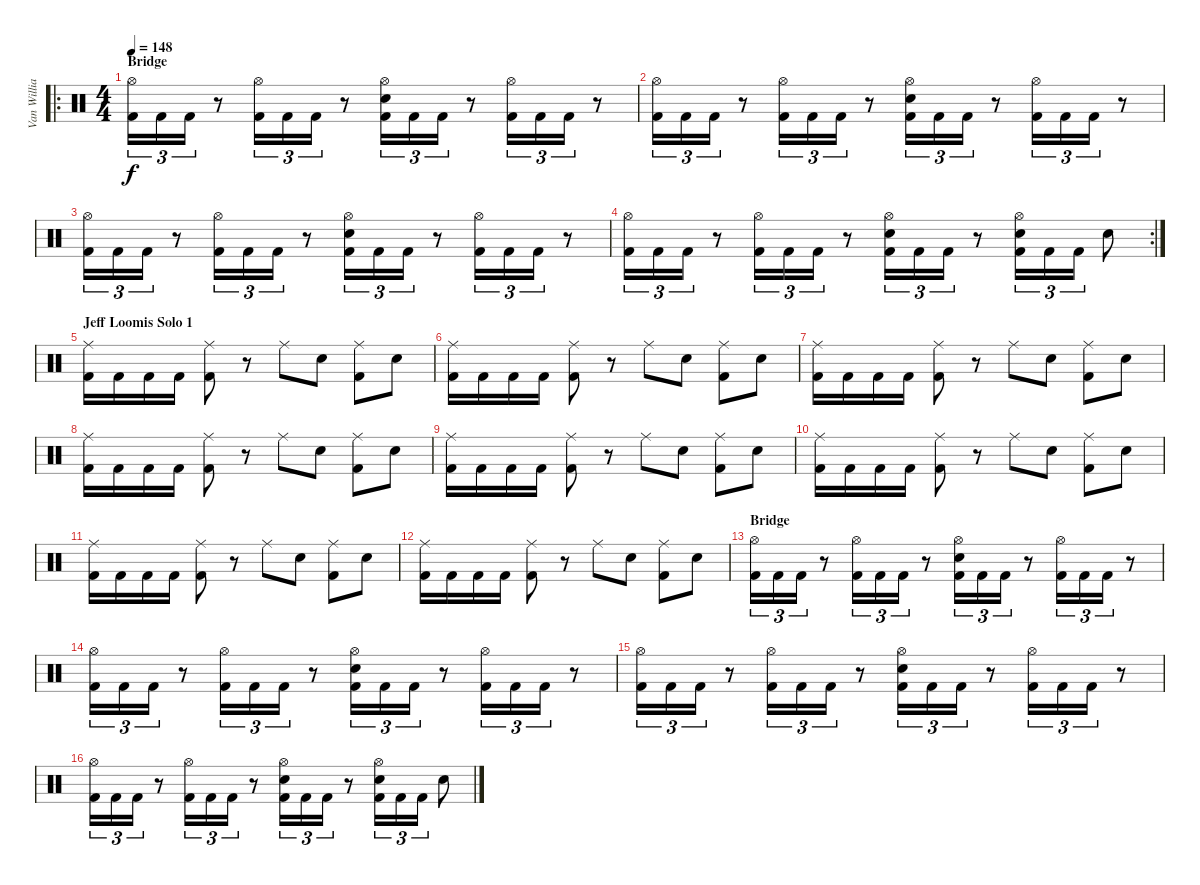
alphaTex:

\track ("Van Williams" "Van Willia") {instrument percussion}
\staff {score}
\articulation defaults
\ro
\ts (4 4)
\section ("" "Bridge")
\tempo 148
\clef neutral
\ks c
("Hi-Hat (open)" "Kick (hit) 2").16{tu (3 2) dy f} "Kick (hit) 2".16{tu (3 2)} "Kick (hit) 2".16{tu (3 2)} r.8 ("Hi-Hat (open)" "Kick (hit) 2").16{tu (3 2)} "Kick (hit) 2".16{tu (3 2)} "Kick (hit) 2".16{tu (3 2)} r.8 ("Hi-Hat (open)" "Electric Snare (hit)" "Kick (hit) 2").16{tu (3 2)} "Kick (hit) 2".16{tu (3 2)} "Kick (hit) 2".16{tu (3 2)} r.8 ("Hi-Hat (open)" "Kick (hit) 2").16{tu (3 2)} "Kick (hit) 2".16{tu (3 2)} "Kick (hit) 2".16{tu (3 2)} r.8 |
("Hi-Hat (open)" "Kick (hit) 2").16{tu (3 2)} "Kick (hit) 2".16{tu (3 2)} "Kick (hit) 2".16{tu (3 2)} r.8 ("Hi-Hat (open)" "Kick (hit) 2").16{tu (3 2)} "Kick (hit) 2".16{tu (3 2)} "Kick (hit) 2".16{tu (3 2)} r.8 ("Hi-Hat (open)" "Electric Snare (hit)" "Kick (hit) 2").16{tu (3 2)} "Kick (hit) 2".16{tu (3 2)} "Kick (hit) 2".16{tu (3 2)} r.8 ("Hi-Hat (open)" "Kick (hit) 2").16{tu (3 2)} "Kick (hit) 2".16{tu (3 2)} "Kick (hit) 2".16{tu (3 2)} r.8 |
("Hi-Hat (open)" "Kick (hit) 2").16{tu (3 2)} "Kick (hit) 2".16{tu (3 2)} "Kick (hit) 2".16{tu (3 2)} r.8 ("Hi-Hat (open)" "Kick (hit) 2").16{tu (3 2)} "Kick (hit) 2".16{tu (3 2)} "Kick (hit) 2".16{tu (3 2)} r.8 ("Hi-Hat (open)" "Electric Snare (hit)" "Kick (hit) 2").16{tu (3 2)} "Kick (hit) 2".16{tu (3 2)} "Kick (hit) 2".16{tu (3 2)} r.8 ("Hi-Hat (open)" "Kick (hit) 2").16{tu (3 2)} "Kick (hit) 2".16{tu (3 2)} "Kick (hit) 2".16{tu (3 2)} r.8 |
\rc 2
("Hi-Hat (open)" "Kick (hit) 2").16{tu (3 2)} "Kick (hit) 2".16{tu (3 2)} "Kick (hit) 2".16{tu (3 2)} r.8 ("Hi-Hat (open)" "Kick (hit) 2").16{tu (3 2)} "Kick (hit) 2".16{tu (3 2)} "Kick (hit) 2".16{tu (3 2)} r.8 ("Hi-Hat (open)" "Electric Snare (hit)" "Kick (hit) 2").16{tu (3 2)} "Kick (hit) 2".16{tu (3 2)} "Kick (hit) 2".16{tu (3 2)} r.8 ("Hi-Hat (open)" "Electric Snare (hit)" "Kick (hit) 2").16{tu (3 2)} "Kick (hit) 2".16{tu (3 2)} "Kick (hit) 2".16{tu (3 2)} "Electric Snare (hit)".8 |
\section ("" "Jeff Loomis Solo 1")
("Ride (middle)" "Kick (hit) 2").16 "Kick (hit) 2".16 "Kick (hit) 2".16 "Kick (hit) 2".16 ("Ride (middle)" "Kick (hit) 2").8 r.8 "Ride (middle)".8 "Electric Snare (hit)".8 ("Ride (middle)" "Kick (hit) 2").8 "Electric Snare (hit)".8 |
("Ride (middle)" "Kick (hit) 2").16 "Kick (hit) 2".16 "Kick (hit) 2".16 "Kick (hit) 2".16 ("Ride (middle)" "Kick (hit) 2").8 r.8 "Ride (middle)".8 "Electric Snare (hit)".8 ("Ride (middle)" "Kick (hit) 2").8 "Electric Snare (hit)".8 |
("Ride (middle)" "Kick (hit) 2").16 "Kick (hit) 2".16 "Kick (hit) 2".16 "Kick (hit) 2".16 ("Ride (middle)" "Kick (hit) 2").8 r.8 "Ride (middle)".8 "Electric Snare (hit)".8 ("Ride (middle)" "Kick (hit) 2").8 "Electric Snare (hit)".8 |
("Ride (middle)" "Kick (hit) 2").16 "Kick (hit) 2".16 "Kick (hit) 2".16 "Kick (hit) 2".16 ("Ride (middle)" "Kick (hit) 2").8 r.8 "Ride (middle)".8 "Electric Snare (hit)".8 ("Ride (middle)" "Kick (hit) 2").8 "Electric Snare (hit)".8 |
("Ride (middle)" "Kick (hit) 2").16 "Kick (hit) 2".16 "Kick (hit) 2".16 "Kick (hit) 2".16 ("Ride (middle)" "Kick (hit) 2").8 r.8 "Ride (middle)".8 "Electric Snare (hit)".8 ("Ride (middle)" "Kick (hit) 2").8 "Electric Snare (hit)".8 |
("Ride (middle)" "Kick (hit) 2").16 "Kick (hit) 2".16 "Kick (hit) 2".16 "Kick (hit) 2".16 ("Ride (middle)" "Kick (hit) 2").8 r.8 "Ride (middle)".8 "Electric Snare (hit)".8 ("Ride (middle)" "Kick (hit) 2").8 "Electric Snare (hit)".8 |
("Ride (middle)" "Kick (hit) 2").16 "Kick (hit) 2".16 "Kick (hit) 2".16 "Kick (hit) 2".16 ("Ride (middle)" "Kick (hit) 2").8 r.8 "Ride (middle)".8 "Electric Snare (hit)".8 ("Ride (middle)" "Kick (hit) 2").8 "Electric Snare (hit)".8 |
("Ride (middle)" "Kick (hit) 2").16 "Kick (hit) 2".16 "Kick (hit) 2".16 "Kick (hit) 2".16 ("Ride (middle)" "Kick (hit) 2").8 r.8 "Ride (middle)".8 "Electric Snare (hit)".8 ("Ride (middle)" "Kick (hit) 2").8 "Electric Snare (hit)".8 |
\section ("" "Bridge")
("Hi-Hat (open)" "Kick (hit) 2").16{tu (3 2)} "Kick (hit) 2".16{tu (3 2)} "Kick (hit) 2".16{tu (3 2)} r.8 ("Hi-Hat (open)" "Kick (hit) 2").16{tu (3 2)} "Kick (hit) 2".16{tu (3 2)} "Kick (hit) 2".16{tu (3 2)} r.8 ("Hi-Hat (open)" "Electric Snare (hit)" "Kick (hit) 2").16{tu (3 2)} "Kick (hit) 2".16{tu (3 2)} "Kick (hit) 2".16{tu (3 2)} r.8 ("Hi-Hat (open)" "Kick (hit) 2").16{tu (3 2)} "Kick (hit) 2".16{tu (3 2)} "Kick (hit) 2".16{tu (3 2)} r.8 |
("Hi-Hat (open)" "Kick (hit) 2").16{tu (3 2)} "Kick (hit) 2".16{tu (3 2)} "Kick (hit) 2".16{tu (3 2)} r.8 ("Hi-Hat (open)" "Kick (hit) 2").16{tu (3 2)} "Kick (hit) 2".16{tu (3 2)} "Kick (hit) 2".16{tu (3 2)} r.8 ("Hi-Hat (open)" "Electric Snare (hit)" "Kick (hit) 2").16{tu (3 2)} "Kick (hit) 2".16{tu (3 2)} "Kick (hit) 2".16{tu (3 2)} r.8 ("Hi-Hat (open)" "Kick (hit) 2").16{tu (3 2)} "Kick (hit) 2".16{tu (3 2)} "Kick (hit) 2".16{tu (3 2)} r.8 |
("Hi-Hat (open)" "Kick (hit) 2").16{tu (3 2)} "Kick (hit) 2".16{tu (3 2)} "Kick (hit) 2".16{tu (3 2)} r.8 ("Hi-Hat (open)" "Kick (hit) 2").16{tu (3 2)} "Kick (hit) 2".16{tu (3 2)} "Kick (hit) 2".16{tu (3 2)} r.8 ("Hi-Hat (open)" "Electric Snare (hit)" "Kick (hit) 2").16{tu (3 2)} "Kick (hit) 2".16{tu (3 2)} "Kick (hit) 2".16{tu (3 2)} r.8 ("Hi-Hat (open)" "Kick (hit) 2").16{tu (3 2)} "Kick (hit) 2".16{tu (3 2)} "Kick (hit) 2".16{tu (3 2)} r.8 |
("Hi-Hat (open)" "Kick (hit) 2").16{tu (3 2)} "Kick (hit) 2".16{tu (3 2)} "Kick (hit) 2".16{tu (3 2)} r.8 ("Hi-Hat (open)" "Kick (hit) 2").16{tu (3 2)} "Kick (hit) 2".16{tu (3 2)} "Kick (hit) 2".16{tu (3 2)} r.8 ("Hi-Hat (open)" "Electric Snare (hit)" "Kick (hit) 2").16{tu (3 2)} "Kick (hit) 2".16{tu (3 2)} "Kick (hit) 2".16{tu (3 2)} r.8 ("Hi-Hat (open)" "Electric Snare (hit)" "Kick (hit) 2").16{tu (3 2)} "Kick (hit) 2".16{tu (3 2)} "Kick (hit) 2".16{tu (3 2)} "Electric Snare (hit)".8
